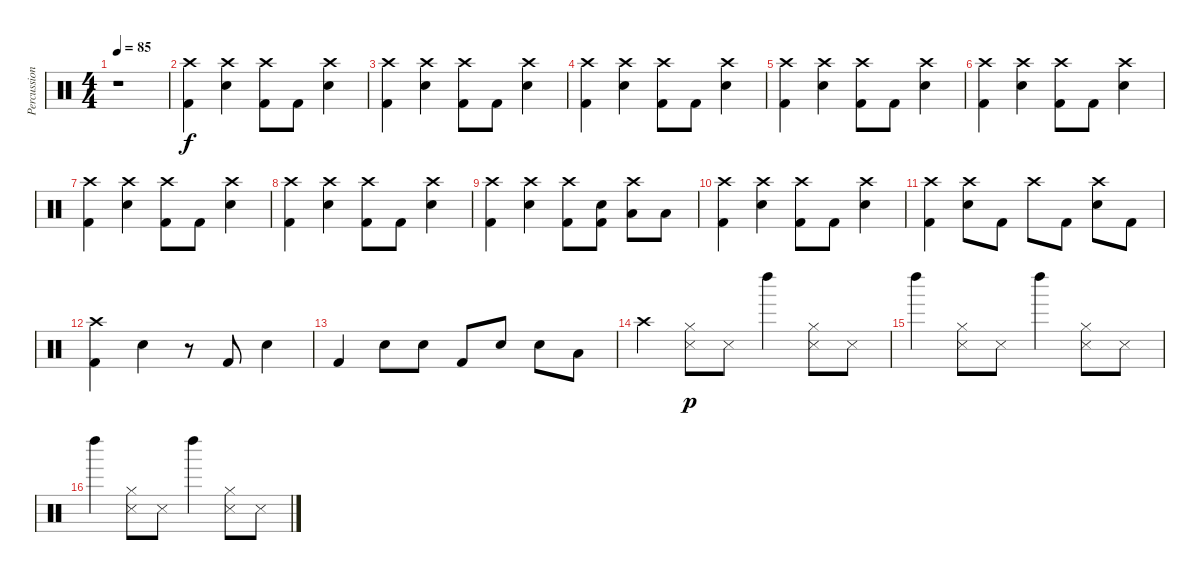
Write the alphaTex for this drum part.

\track ("Percussion" "Percussion") {instrument percussion}
\staff {score}
\articulation defaults
\ts (4 4)
\tempo 85
\clef neutral
\ks c
r.1{dy f} |
("Crash high (hit)" "Kick (hit) 2").4 ("Crash high (hit)" "Snare (hit) 2").4 ("Crash high (hit)" "Kick (hit) 2").8 "Kick (hit) 2".8 ("Crash high (hit)" "Snare (hit) 2").4 |
("Crash high (hit)" "Kick (hit) 2").4 ("Crash high (hit)" "Snare (hit) 2").4 ("Crash high (hit)" "Kick (hit) 2").8 "Kick (hit) 2".8 ("Crash high (hit)" "Snare (hit) 2").4 |
("Crash high (hit)" "Kick (hit) 2").4 ("Crash high (hit)" "Snare (hit) 2").4 ("Crash high (hit)" "Kick (hit) 2").8 "Kick (hit) 2".8 ("Crash high (hit)" "Snare (hit) 2").4 |
("Crash high (hit)" "Kick (hit) 2").4 ("Crash high (hit)" "Snare (hit) 2").4 ("Crash high (hit)" "Kick (hit) 2").8 "Kick (hit) 2".8 ("Crash high (hit)" "Snare (hit) 2").4 |
("Crash high (hit)" "Kick (hit) 2").4 ("Crash high (hit)" "Snare (hit) 2").4 ("Crash high (hit)" "Kick (hit) 2").8 "Kick (hit) 2".8 ("Crash high (hit)" "Snare (hit) 2").4 |
("Crash high (hit)" "Kick (hit) 2").4 ("Crash high (hit)" "Snare (hit) 2").4 ("Crash high (hit)" "Kick (hit) 2").8 "Kick (hit) 2".8 ("Crash high (hit)" "Snare (hit) 2").4 |
("Crash high (hit)" "Kick (hit) 2").4 ("Crash high (hit)" "Snare (hit) 2").4 ("Crash high (hit)" "Kick (hit) 2").8 "Kick (hit) 2".8 ("Crash high (hit)" "Snare (hit) 2").4 |
("Crash high (hit)" "Kick (hit) 2").4 ("Crash high (hit)" "Snare (hit) 2").4 ("Crash high (hit)" "Kick (hit) 2").8 ("Snare (hit) 2" "Kick (hit) 2").8 ("Crash high (hit)" "Low Tom (hit)").8 "Low Tom (hit)".8 |
("Crash high (hit)" "Kick (hit) 2").4 ("Crash high (hit)" "Snare (hit) 2").4 ("Crash high (hit)" "Kick (hit) 2").8 "Kick (hit) 2".8 ("Crash high (hit)" "Snare (hit) 2").4 |
("Crash high (hit)" "Kick (hit) 2").4 ("Crash high (hit)" "Snare (hit) 2").8 "Kick (hit) 2".8 "Crash high (hit)".8 "Kick (hit) 2".8 ("Crash high (hit)" "Snare (hit) 2").8 "Kick (hit) 2".8 |
("Crash high (hit)" "Kick (hit) 2").4 "Snare (hit) 2".4 r.8 "Kick (hit) 2".8 "Snare (hit) 2".4 |
"Kick (hit) 2".4 "Snare (hit) 2".8 "Snare (hit) 2".8 "Kick (hit) 2".8 "Snare (hit) 2".8 "Snare (hit) 2".8 "Low Tom (hit)".8 |
"Crash high (hit)".4 ("Hi-Hat (closed)" "Metronome (hit)").8{dy p} "Metronome (hit)".8 "Left Maraca (hit)".4 ("Hi-Hat (closed)" "Metronome (hit)").8 "Metronome (hit)".8 |
"Left Maraca (hit)".4 ("Hi-Hat (closed)" "Metronome (hit)").8 "Metronome (hit)".8 "Left Maraca (hit)".4 ("Hi-Hat (closed)" "Metronome (hit)").8 "Metronome (hit)".8 |
"Left Maraca (hit)".4 ("Hi-Hat (closed)" "Metronome (hit)").8 "Metronome (hit)".8 "Left Maraca (hit)".4 ("Hi-Hat (closed)" "Metronome (hit)").8 "Metronome (hit)".8
